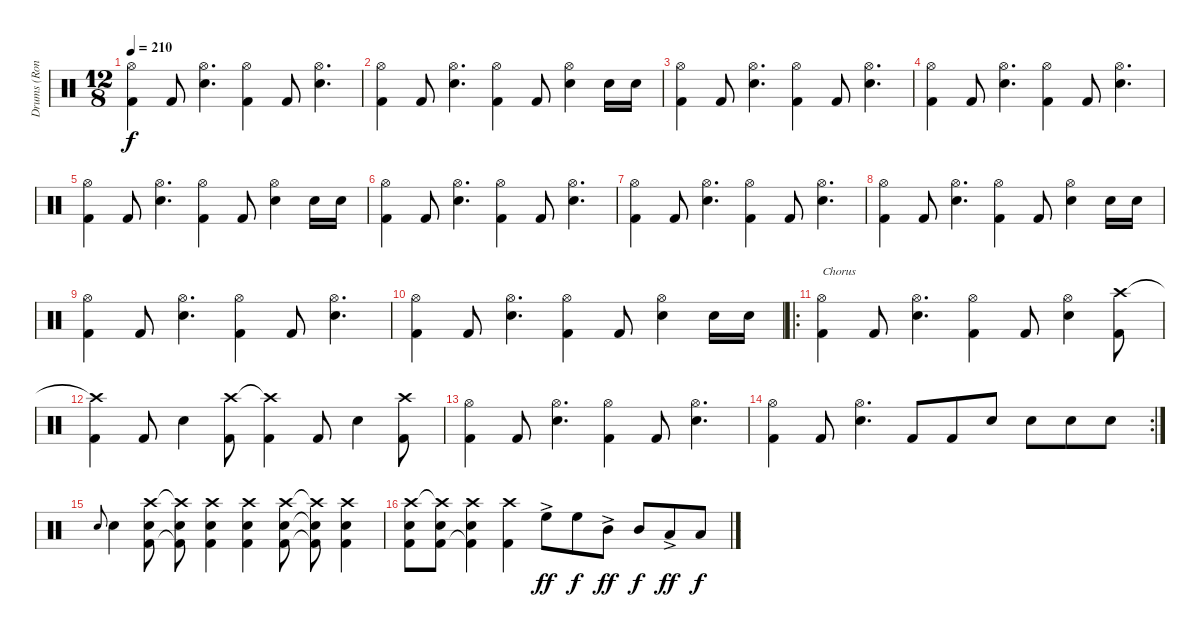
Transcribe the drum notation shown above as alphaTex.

\track ("Drums (Ronny)" "Drums (Ron") {instrument percussion}
\staff {score}
\articulation defaults
\ts (12 8)
\tempo 210
\clef neutral
\ks c
("Hi-Hat (open)" "Kick (hit) 2").4{dy f} "Kick (hit) 2".8 ("Hi-Hat (open)" "Snare (hit) 2").4{d} ("Hi-Hat (open)" "Kick (hit) 2").4 "Kick (hit) 2".8 ("Hi-Hat (open)" "Snare (hit) 2").4{d} |
("Hi-Hat (open)" "Kick (hit) 2").4 "Kick (hit) 2".8 ("Hi-Hat (open)" "Snare (hit) 2").4{d} ("Hi-Hat (open)" "Kick (hit) 2").4 "Kick (hit) 2".8 ("Hi-Hat (open)" "Snare (hit) 2").4 "Snare (hit) 2".16 "Snare (hit) 2".16 |
("Hi-Hat (open)" "Kick (hit) 2").4 "Kick (hit) 2".8 ("Hi-Hat (open)" "Snare (hit) 2").4{d} ("Hi-Hat (open)" "Kick (hit) 2").4 "Kick (hit) 2".8 ("Hi-Hat (open)" "Snare (hit) 2").4{d} |
("Hi-Hat (open)" "Kick (hit) 2").4 "Kick (hit) 2".8 ("Hi-Hat (open)" "Snare (hit) 2").4{d} ("Hi-Hat (open)" "Kick (hit) 2").4 "Kick (hit) 2".8 ("Hi-Hat (open)" "Snare (hit) 2").4{d} |
("Hi-Hat (open)" "Kick (hit) 2").4 "Kick (hit) 2".8 ("Hi-Hat (open)" "Snare (hit) 2").4{d} ("Hi-Hat (open)" "Kick (hit) 2").4 "Kick (hit) 2".8 ("Hi-Hat (open)" "Snare (hit) 2").4 "Snare (hit) 2".16 "Snare (hit) 2".16 |
("Hi-Hat (open)" "Kick (hit) 2").4 "Kick (hit) 2".8 ("Hi-Hat (open)" "Snare (hit) 2").4{d} ("Hi-Hat (open)" "Kick (hit) 2").4 "Kick (hit) 2".8 ("Hi-Hat (open)" "Snare (hit) 2").4{d} |
("Hi-Hat (open)" "Kick (hit) 2").4 "Kick (hit) 2".8 ("Hi-Hat (open)" "Snare (hit) 2").4{d} ("Hi-Hat (open)" "Kick (hit) 2").4 "Kick (hit) 2".8 ("Hi-Hat (open)" "Snare (hit) 2").4{d} |
("Hi-Hat (open)" "Kick (hit) 2").4 "Kick (hit) 2".8 ("Hi-Hat (open)" "Snare (hit) 2").4{d} ("Hi-Hat (open)" "Kick (hit) 2").4 "Kick (hit) 2".8 ("Hi-Hat (open)" "Snare (hit) 2").4 "Snare (hit) 2".16 "Snare (hit) 2".16 |
("Hi-Hat (open)" "Kick (hit) 2").4 "Kick (hit) 2".8 ("Hi-Hat (open)" "Snare (hit) 2").4{d} ("Hi-Hat (open)" "Kick (hit) 2").4 "Kick (hit) 2".8 ("Hi-Hat (open)" "Snare (hit) 2").4{d} |
("Hi-Hat (open)" "Kick (hit) 2").4 "Kick (hit) 2".8 ("Hi-Hat (open)" "Snare (hit) 2").4{d} ("Hi-Hat (open)" "Kick (hit) 2").4 "Kick (hit) 2".8 ("Hi-Hat (open)" "Snare (hit) 2").4 "Snare (hit) 2".16 "Snare (hit) 2".16 |
\ro
("Hi-Hat (open)" "Kick (hit) 2").4{txt "Chorus"} "Kick (hit) 2".8 ("Hi-Hat (open)" "Snare (hit) 2").4{d} ("Hi-Hat (open)" "Kick (hit) 2").4 "Kick (hit) 2".8 ("Hi-Hat (open)" "Snare (hit) 2").4 ("Crash high (hit)" "Kick (hit) 2").8 |
("Crash high (hit)"{t} "Kick (hit) 2").4 "Kick (hit) 2".8 "Snare (hit) 2".4 ("Crash high (hit)" "Kick (hit) 2").8 ("Crash high (hit)"{t} "Kick (hit) 2").4 "Kick (hit) 2".8 "Snare (hit) 2".4 ("Crash high (hit)" "Kick (hit) 2").8 |
("Hi-Hat (open)" "Kick (hit) 2").4 "Kick (hit) 2".8 ("Hi-Hat (open)" "Snare (hit) 2").4{d} ("Hi-Hat (open)" "Kick (hit) 2").4 "Kick (hit) 2".8 ("Hi-Hat (open)" "Snare (hit) 2").4{d} |
\rc 2
("Hi-Hat (open)" "Kick (hit) 2").4 "Kick (hit) 2".8 ("Hi-Hat (open)" "Snare (hit) 2").4{d} "Kick (hit) 2".8 "Kick (hit) 2".8 "Snare (hit) 2".8 "Snare (hit) 2".8 "Snare (hit) 2".8 "Snare (hit) 2".8 |
"Snare (hit) 2".8{gr onbeat} "Snare (hit) 2".4 ("Crash high (hit)" "Snare (hit) 2" "Kick (hit) 2").8 ("Crash high (hit)"{t} "Snare (hit) 2" "Kick (hit) 2"{t}).8 ("Crash high (hit)" "Snare (hit) 2" "Kick (hit) 2").4 ("Crash high (hit)" "Snare (hit) 2" "Kick (hit) 2").4 ("Crash high (hit)" "Snare (hit) 2" "Kick (hit) 2").8 ("Crash high (hit)"{t} "Snare (hit) 2"{t} "Kick (hit) 2"{t}).8 ("Crash high (hit)" "Snare (hit) 2" "Kick (hit) 2").4 |
("Crash high (hit)" "Snare (hit) 2" "Kick (hit) 2").8 ("Crash high (hit)"{t} "Snare (hit) 2" "Kick (hit) 2").8 ("Crash high (hit)" "Snare (hit) 2" "Kick (hit) 2"{t}).4 ("Crash high (hit)" "Kick (hit) 2").4 "High Floor Tom (hit)"{ac}.8{dy ff} "High Floor Tom (hit)".8{dy f} "Mid Tom (hit)"{ac}.8{dy ff} "Mid Tom (hit)".8{dy f} "Low Tom (hit)"{ac}.8{dy ff} "Low Tom (hit)".8{dy f}
